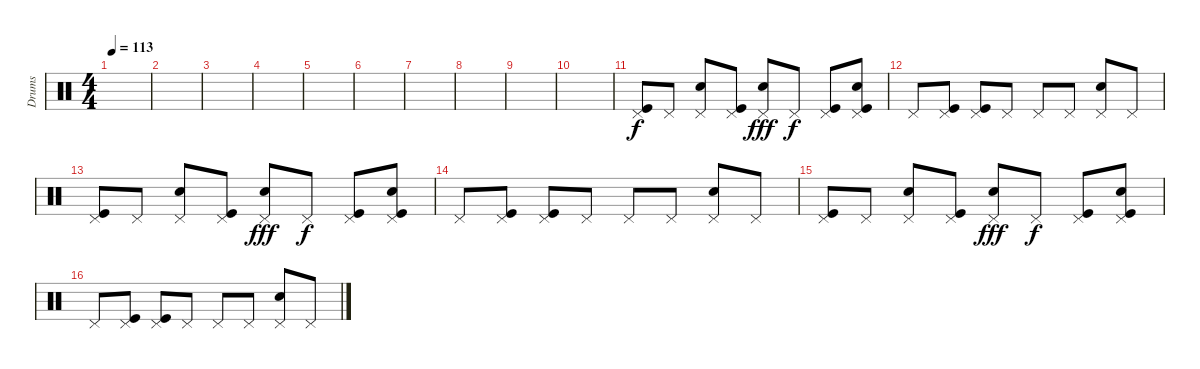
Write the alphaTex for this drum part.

\track ("Drums" "Drums") {instrument percussion}
\staff {score}
\articulation defaults
\ts (4 4)
\tempo 113
\clef neutral
\ks c
|
|
|
|
|
|
|
|
|
|
("Pedal Hi-Hat (hit)" "Kick (hit)").8 "Pedal Hi-Hat (hit)".8 ("Pedal Hi-Hat (hit)" "Electric Snare (hit)").8 ("Pedal Hi-Hat (hit)" "Kick (hit)").8 ("Pedal Hi-Hat (hit)" "Snare (hit) 2").8{dy fff} "Pedal Hi-Hat (hit)".8{dy f} ("Pedal Hi-Hat (hit)" "Kick (hit)").8 ("Pedal Hi-Hat (hit)" "Electric Snare (hit)" "Kick (hit)").8 |
"Pedal Hi-Hat (hit)".8 ("Pedal Hi-Hat (hit)" "Kick (hit)").8 ("Pedal Hi-Hat (hit)" "Kick (hit)").8 "Pedal Hi-Hat (hit)".8 "Pedal Hi-Hat (hit)".8 "Pedal Hi-Hat (hit)".8 ("Pedal Hi-Hat (hit)" "Snare (hit) 2").8 "Pedal Hi-Hat (hit)".8 |
("Pedal Hi-Hat (hit)" "Kick (hit)").8 "Pedal Hi-Hat (hit)".8 ("Pedal Hi-Hat (hit)" "Electric Snare (hit)").8 ("Pedal Hi-Hat (hit)" "Kick (hit)").8 ("Pedal Hi-Hat (hit)" "Snare (hit) 2").8{dy fff} "Pedal Hi-Hat (hit)".8{dy f} ("Pedal Hi-Hat (hit)" "Kick (hit)").8 ("Pedal Hi-Hat (hit)" "Electric Snare (hit)" "Kick (hit)").8 |
"Pedal Hi-Hat (hit)".8 ("Pedal Hi-Hat (hit)" "Kick (hit)").8 ("Pedal Hi-Hat (hit)" "Kick (hit)").8 "Pedal Hi-Hat (hit)".8 "Pedal Hi-Hat (hit)".8 "Pedal Hi-Hat (hit)".8 ("Pedal Hi-Hat (hit)" "Snare (hit) 2").8 "Pedal Hi-Hat (hit)".8 |
("Pedal Hi-Hat (hit)" "Kick (hit)").8 "Pedal Hi-Hat (hit)".8 ("Pedal Hi-Hat (hit)" "Electric Snare (hit)").8 ("Pedal Hi-Hat (hit)" "Kick (hit)").8 ("Pedal Hi-Hat (hit)" "Snare (hit) 2").8{dy fff} "Pedal Hi-Hat (hit)".8{dy f} ("Pedal Hi-Hat (hit)" "Kick (hit)").8 ("Pedal Hi-Hat (hit)" "Electric Snare (hit)" "Kick (hit)").8 |
"Pedal Hi-Hat (hit)".8 ("Pedal Hi-Hat (hit)" "Kick (hit)").8 ("Pedal Hi-Hat (hit)" "Kick (hit)").8 "Pedal Hi-Hat (hit)".8 "Pedal Hi-Hat (hit)".8 "Pedal Hi-Hat (hit)".8 ("Pedal Hi-Hat (hit)" "Snare (hit) 2").8 "Pedal Hi-Hat (hit)".8
